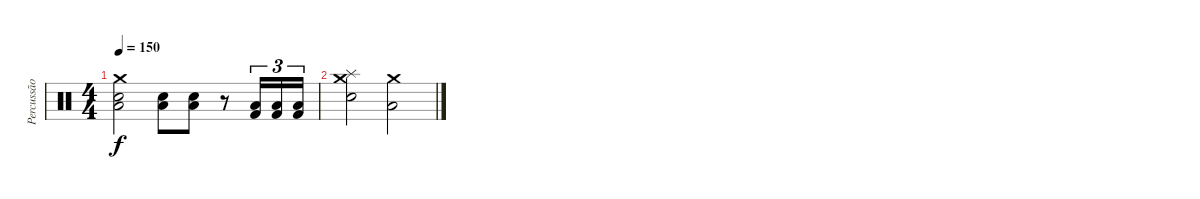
\track ("Percussão" "Percussão") {instrument percussion}
\staff {score}
\articulation defaults
\ts (4 4)
\tempo 150
\clef neutral
\ks c
("Snare (hit) 2" "Low Tom (hit)" "Crash medium (hit)").2{dy f} ("Snare (hit) 2" "Low Tom (hit)").8 ("Snare (hit) 2" "Low Tom (hit)").8 r.8 ("Kick (hit) 2" "Low Tom (hit)").16{tu (3 2)} ("Kick (hit) 2" "Low Tom (hit)").16{tu (3 2)} ("Kick (hit) 2" "Low Tom (hit)").16{tu (3 2)} |
("Splash (hit)" "Crash medium (hit)" "Snare (hit) 2").2 ("Low Tom (hit)" "Crash medium (hit)").2
